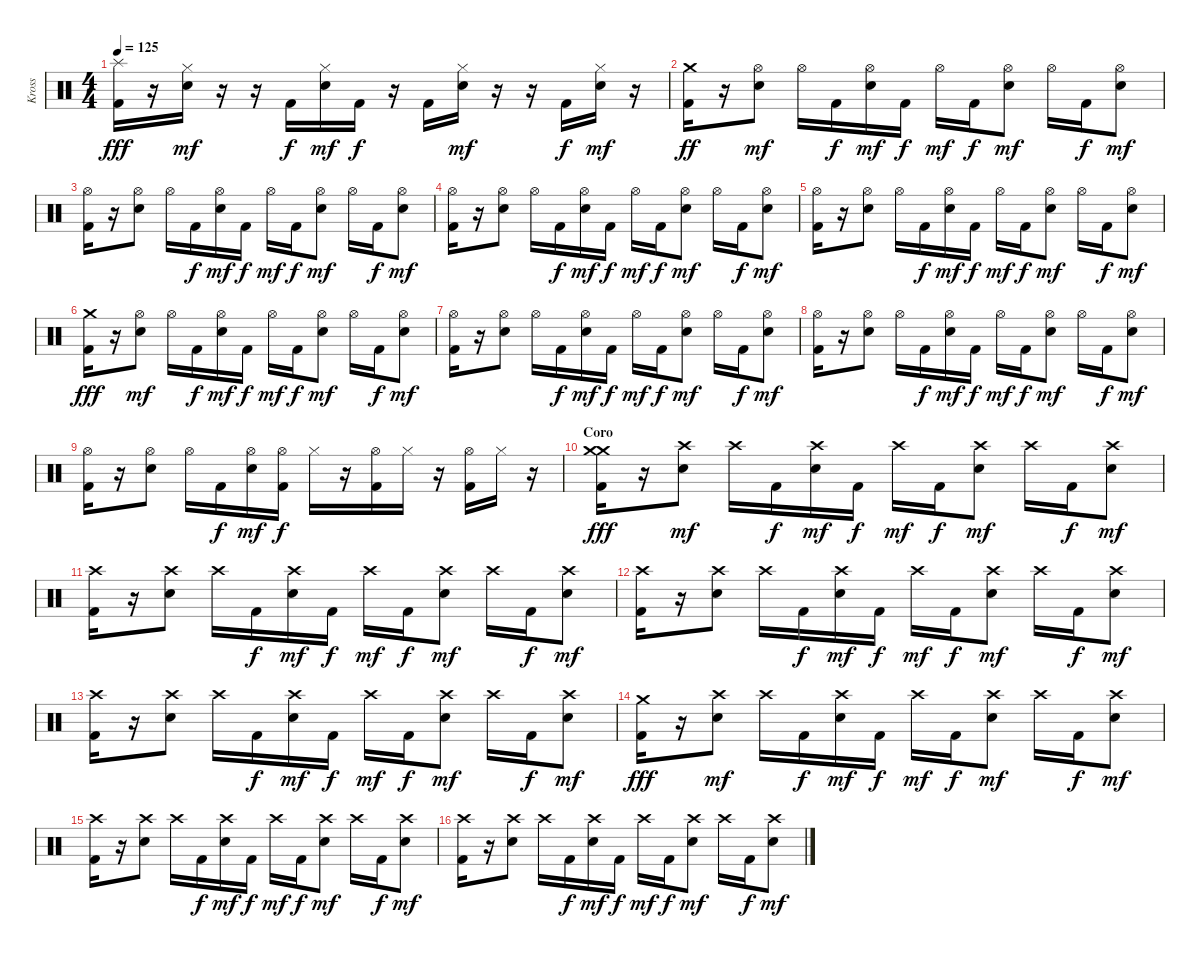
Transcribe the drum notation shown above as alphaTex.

\track ("Kross" "Kross") {instrument percussion}
\staff {score}
\articulation defaults
\ts (4 4)
\tempo 125
\clef neutral
\ks c
("Splash (hit)" "Kick (hit) 2").16{dy fff} r.16 ("Hi-Hat (closed)" "Electric Snare (hit)").16{dy mf} r.16 r.16 "Kick (hit) 2".16{dy f} ("Hi-Hat (closed)" "Electric Snare (hit)").16{dy mf} "Kick (hit) 2".16{dy f} r.16 "Kick (hit) 2".16 ("Hi-Hat (closed)" "Electric Snare (hit)").16{dy mf} r.16 r.16 "Kick (hit) 2".16{dy f} ("Hi-Hat (closed)" "Electric Snare (hit)").16{dy mf} r.16 |
("Crash medium (hit)" "Kick (hit) 2").16{dy ff} r.16 ("Hi-Hat (open)" "Electric Snare (hit)").8{dy mf} "Hi-Hat (open)".16 "Kick (hit) 2".16{dy f} ("Hi-Hat (open)" "Electric Snare (hit)").16{dy mf} "Kick (hit) 2".16{dy f} "Hi-Hat (open)".16{dy mf} "Kick (hit) 2".16{dy f} ("Hi-Hat (open)" "Electric Snare (hit)").8{dy mf} "Hi-Hat (open)".16 "Kick (hit) 2".16{dy f} ("Hi-Hat (open)" "Electric Snare (hit)").8{dy mf} |
("Hi-Hat (open)" "Kick (hit) 2").16 r.16 ("Hi-Hat (open)" "Electric Snare (hit)").8 "Hi-Hat (open)".16 "Kick (hit) 2".16{dy f} ("Hi-Hat (open)" "Electric Snare (hit)").16{dy mf} "Kick (hit) 2".16{dy f} "Hi-Hat (open)".16{dy mf} "Kick (hit) 2".16{dy f} ("Hi-Hat (open)" "Electric Snare (hit)").8{dy mf} "Hi-Hat (open)".16 "Kick (hit) 2".16{dy f} ("Hi-Hat (open)" "Electric Snare (hit)").8{dy mf} |
("Hi-Hat (open)" "Kick (hit) 2").16 r.16 ("Hi-Hat (open)" "Electric Snare (hit)").8 "Hi-Hat (open)".16 "Kick (hit) 2".16{dy f} ("Hi-Hat (open)" "Electric Snare (hit)").16{dy mf} "Kick (hit) 2".16{dy f} "Hi-Hat (open)".16{dy mf} "Kick (hit) 2".16{dy f} ("Hi-Hat (open)" "Electric Snare (hit)").8{dy mf} "Hi-Hat (open)".16 "Kick (hit) 2".16{dy f} ("Hi-Hat (open)" "Electric Snare (hit)").8{dy mf} |
("Hi-Hat (open)" "Kick (hit) 2").16 r.16 ("Hi-Hat (open)" "Electric Snare (hit)").8 "Hi-Hat (open)".16 "Kick (hit) 2".16{dy f} ("Hi-Hat (open)" "Electric Snare (hit)").16{dy mf} "Kick (hit) 2".16{dy f} "Hi-Hat (open)".16{dy mf} "Kick (hit) 2".16{dy f} ("Hi-Hat (open)" "Electric Snare (hit)").8{dy mf} "Hi-Hat (open)".16 "Kick (hit) 2".16{dy f} ("Hi-Hat (open)" "Electric Snare (hit)").8{dy mf} |
("Crash medium (hit)" "Kick (hit) 2").16{dy fff} r.16 ("Hi-Hat (open)" "Electric Snare (hit)").8{dy mf} "Hi-Hat (open)".16 "Kick (hit) 2".16{dy f} ("Hi-Hat (open)" "Electric Snare (hit)").16{dy mf} "Kick (hit) 2".16{dy f} "Hi-Hat (open)".16{dy mf} "Kick (hit) 2".16{dy f} ("Hi-Hat (open)" "Electric Snare (hit)").8{dy mf} "Hi-Hat (open)".16 "Kick (hit) 2".16{dy f} ("Hi-Hat (open)" "Electric Snare (hit)").8{dy mf} |
("Hi-Hat (open)" "Kick (hit) 2").16 r.16 ("Hi-Hat (open)" "Electric Snare (hit)").8 "Hi-Hat (open)".16 "Kick (hit) 2".16{dy f} ("Hi-Hat (open)" "Electric Snare (hit)").16{dy mf} "Kick (hit) 2".16{dy f} "Hi-Hat (open)".16{dy mf} "Kick (hit) 2".16{dy f} ("Hi-Hat (open)" "Electric Snare (hit)").8{dy mf} "Hi-Hat (open)".16 "Kick (hit) 2".16{dy f} ("Hi-Hat (open)" "Electric Snare (hit)").8{dy mf} |
("Hi-Hat (open)" "Kick (hit) 2").16 r.16 ("Hi-Hat (open)" "Electric Snare (hit)").8 "Hi-Hat (open)".16 "Kick (hit) 2".16{dy f} ("Hi-Hat (open)" "Electric Snare (hit)").16{dy mf} "Kick (hit) 2".16{dy f} "Hi-Hat (open)".16{dy mf} "Kick (hit) 2".16{dy f} ("Hi-Hat (open)" "Electric Snare (hit)").8{dy mf} "Hi-Hat (open)".16 "Kick (hit) 2".16{dy f} ("Hi-Hat (open)" "Electric Snare (hit)").8{dy mf} |
("Hi-Hat (open)" "Kick (hit) 2").16 r.16 ("Hi-Hat (open)" "Electric Snare (hit)").8 "Hi-Hat (open)".16 "Kick (hit) 2".16{dy f} ("Hi-Hat (open)" "Electric Snare (hit)").16{dy mf} ("Hi-Hat (open)" "Kick (hit) 2").16{dy f} "Hi-Hat (closed)".16 r.16 ("Hi-Hat (open)" "Kick (hit) 2").16 "Hi-Hat (closed)".16 r.16 ("Hi-Hat (open)" "Kick (hit) 2").16 "Hi-Hat (closed)".16 r.16 |
\section ("" "Coro")
("Crash medium (hit)" "Crash medium (hit)" "Kick (hit) 2").16{dy fff} r.16 ("Crash high (hit)" "Electric Snare (hit)").8{dy mf} "Crash high (hit)".16 "Kick (hit) 2".16{dy f} ("Crash high (hit)" "Electric Snare (hit)").16{dy mf} "Kick (hit) 2".16{dy f} "Crash high (hit)".16{dy mf} "Kick (hit) 2".16{dy f} ("Crash high (hit)" "Electric Snare (hit)").8{dy mf} "Crash high (hit)".16 "Kick (hit) 2".16{dy f} ("Crash high (hit)" "Electric Snare (hit)").8{dy mf} |
("Crash high (hit)" "Kick (hit) 2").16 r.16 ("Crash high (hit)" "Electric Snare (hit)").8 "Crash high (hit)".16 "Kick (hit) 2".16{dy f} ("Crash high (hit)" "Electric Snare (hit)").16{dy mf} "Kick (hit) 2".16{dy f} "Crash high (hit)".16{dy mf} "Kick (hit) 2".16{dy f} ("Crash high (hit)" "Electric Snare (hit)").8{dy mf} "Crash high (hit)".16 "Kick (hit) 2".16{dy f} ("Crash high (hit)" "Electric Snare (hit)").8{dy mf} |
("Crash high (hit)" "Kick (hit) 2").16 r.16 ("Crash high (hit)" "Electric Snare (hit)").8 "Crash high (hit)".16 "Kick (hit) 2".16{dy f} ("Crash high (hit)" "Electric Snare (hit)").16{dy mf} "Kick (hit) 2".16{dy f} "Crash high (hit)".16{dy mf} "Kick (hit) 2".16{dy f} ("Crash high (hit)" "Electric Snare (hit)").8{dy mf} "Crash high (hit)".16 "Kick (hit) 2".16{dy f} ("Crash high (hit)" "Electric Snare (hit)").8{dy mf} |
("Crash high (hit)" "Kick (hit) 2").16 r.16 ("Crash high (hit)" "Electric Snare (hit)").8 "Crash high (hit)".16 "Kick (hit) 2".16{dy f} ("Crash high (hit)" "Electric Snare (hit)").16{dy mf} "Kick (hit) 2".16{dy f} "Crash high (hit)".16{dy mf} "Kick (hit) 2".16{dy f} ("Crash high (hit)" "Electric Snare (hit)").8{dy mf} "Crash high (hit)".16 "Kick (hit) 2".16{dy f} ("Crash high (hit)" "Electric Snare (hit)").8{dy mf} |
("Crash medium (hit)" "Kick (hit) 2").16{dy fff} r.16 ("Crash high (hit)" "Electric Snare (hit)").8{dy mf} "Crash high (hit)".16 "Kick (hit) 2".16{dy f} ("Crash high (hit)" "Electric Snare (hit)").16{dy mf} "Kick (hit) 2".16{dy f} "Crash high (hit)".16{dy mf} "Kick (hit) 2".16{dy f} ("Crash high (hit)" "Electric Snare (hit)").8{dy mf} "Crash high (hit)".16 "Kick (hit) 2".16{dy f} ("Crash high (hit)" "Electric Snare (hit)").8{dy mf} |
("Crash high (hit)" "Kick (hit) 2").16 r.16 ("Crash high (hit)" "Electric Snare (hit)").8 "Crash high (hit)".16 "Kick (hit) 2".16{dy f} ("Crash high (hit)" "Electric Snare (hit)").16{dy mf} "Kick (hit) 2".16{dy f} "Crash high (hit)".16{dy mf} "Kick (hit) 2".16{dy f} ("Crash high (hit)" "Electric Snare (hit)").8{dy mf} "Crash high (hit)".16 "Kick (hit) 2".16{dy f} ("Crash high (hit)" "Electric Snare (hit)").8{dy mf} |
("Crash high (hit)" "Kick (hit) 2").16 r.16 ("Crash high (hit)" "Electric Snare (hit)").8 "Crash high (hit)".16 "Kick (hit) 2".16{dy f} ("Crash high (hit)" "Electric Snare (hit)").16{dy mf} "Kick (hit) 2".16{dy f} "Crash high (hit)".16{dy mf} "Kick (hit) 2".16{dy f} ("Crash high (hit)" "Electric Snare (hit)").8{dy mf} "Crash high (hit)".16 "Kick (hit) 2".16{dy f} ("Crash high (hit)" "Electric Snare (hit)").8{dy mf}
